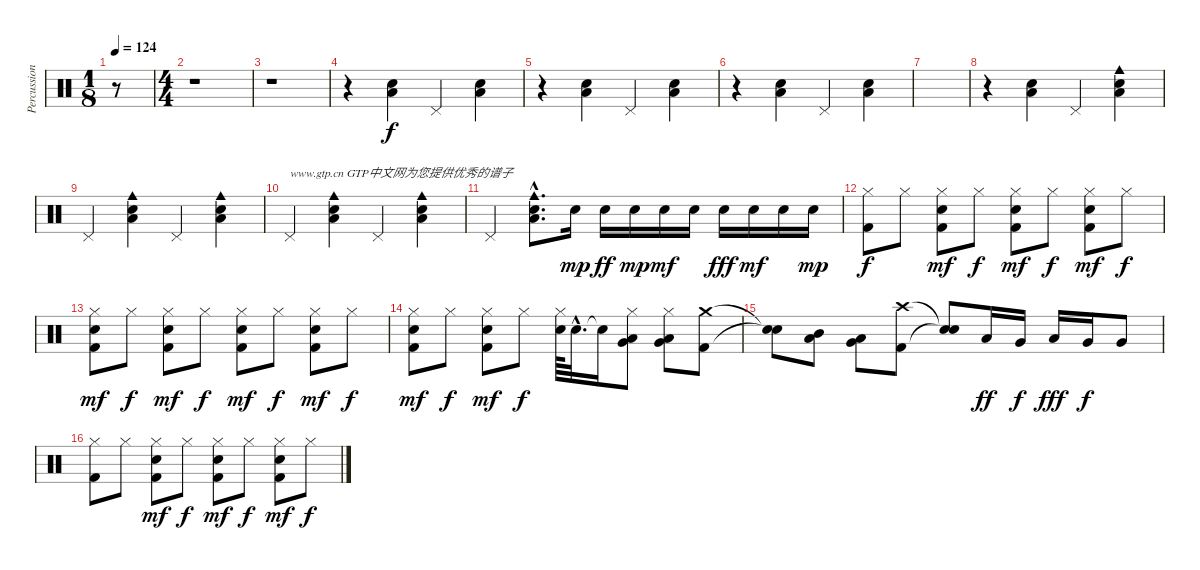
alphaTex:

\track ("Percussion" "Percussion") {instrument percussion}
\staff {score}
\articulation defaults
\ts (1 8)
\tempo 124
\clef neutral
\ks c
r.8{dy f} |
\ts (4 4)
r.1 |
r.1 |
r.4 ("Low Floor Tom (hit)" "Metronome (bell)").4 "Pedal Hi-Hat (hit)".4 ("Low Floor Tom (hit)" "Metronome (bell)").4 |
r.4 ("Low Floor Tom (hit)" "Metronome (bell)").4 "Pedal Hi-Hat (hit)".4 ("Low Floor Tom (hit)" "Metronome (bell)").4 |
r.4 ("Low Floor Tom (hit)" "Metronome (bell)").4 "Pedal Hi-Hat (hit)".4 ("Low Floor Tom (hit)" "Metronome (bell)").4 |
|
r.4 ("Low Floor Tom (hit)" "Metronome (bell)").4 "Pedal Hi-Hat (hit)".4 ("Cowbell medium (hit)" "Low Floor Tom (hit)" "Metronome (bell)").4 |
"Pedal Hi-Hat (hit)".4 ("Cowbell medium (hit)" "Low Floor Tom (hit)" "Metronome (bell)").4 "Pedal Hi-Hat (hit)".4 ("Cowbell medium (hit)" "Low Floor Tom (hit)" "Metronome (bell)").4 |
"Pedal Hi-Hat (hit)".4{txt "www.gtp.cn GTP中文网为您提供优秀的谱子"} ("Cowbell medium (hit)" "Low Floor Tom (hit)" "Metronome (bell)").4 "Pedal Hi-Hat (hit)".4 ("Cowbell medium (hit)" "Low Floor Tom (hit)" "Metronome (bell)").4 |
"Pedal Hi-Hat (hit)".4 ("Cowbell medium (hit)"{hac} "Low Floor Tom (hit)"{hac} "Metronome (bell)"{hac}).8{d} "Metronome (bell)".16{dy mp} "Metronome (bell)".16{dy ff} "Metronome (bell)".16{dy mp} "Metronome (bell)".16{dy mf} "Metronome (bell)".16 "Metronome (bell)".16{dy fff} "Metronome (bell)".16{dy mf} "Metronome (bell)".16 "Metronome (bell)".16{dy mp} |
("Hi-Hat (closed)" "Kick (hit) 2").8{dy f} "Hi-Hat (closed)".8 ("Hi-Hat (closed)" "Metronome (bell)" "Kick (hit) 2").8{dy mf} "Hi-Hat (closed)".8{dy f} ("Hi-Hat (closed)" "Metronome (bell)" "Kick (hit) 2").8{dy mf} "Hi-Hat (closed)".8{dy f} ("Hi-Hat (closed)" "Metronome (bell)" "Kick (hit) 2").8{dy mf} "Hi-Hat (closed)".8{dy f} |
("Hi-Hat (closed)" "Metronome (bell)" "Kick (hit) 2").8{dy mf} "Hi-Hat (closed)".8{dy f} ("Hi-Hat (closed)" "Metronome (bell)" "Kick (hit) 2").8{dy mf} "Hi-Hat (closed)".8{dy f} ("Hi-Hat (closed)" "Metronome (bell)" "Kick (hit) 2").8{dy mf} "Hi-Hat (closed)".8{dy f} ("Hi-Hat (closed)" "Metronome (bell)" "Kick (hit) 2").8{dy mf} "Hi-Hat (closed)".8{dy f} |
("Hi-Hat (closed)" "Metronome (bell)" "Kick (hit) 2").8{dy mf} "Hi-Hat (closed)".8{dy f} ("Hi-Hat (closed)" "Metronome (bell)" "Kick (hit) 2").8{dy mf} "Hi-Hat (closed)".8{dy f} ("Hi-Hat (closed)" "Metronome (bell)").64 "Metronome (bell)"{hac}.32{d} "Snare (hit)"{t}.16 ("Hi-Hat (closed)" "Low Tom (hit)" "Very Low Tom (hit)").8 ("Hi-Hat (closed)" "Very Low Tom (hit)" "Low Floor Tom (hit)").8 ("Crash medium (hit)" "Kick (hit) 2").8 |
("Snare (hit)"{t} "Snare (hit)"{t}).8 ("Mid Tom (hit)" "Low Tom (hit)").8 ("Low Tom (hit)" "Very Low Tom (hit)").8 ("Crash high (hit)" "Kick (hit) 2").8 ("Snare (hit)"{t} "Snare (hit)"{t}).8 "Low Tom (hit)".16{dy ff} "Very Low Tom (hit)".16{dy f} "Low Tom (hit)".16{dy fff} "Very Low Tom (hit)".16{dy f} "Very Low Tom (hit)".8 |
("Hi-Hat (closed)" "Kick (hit) 2").8 "Hi-Hat (closed)".8 ("Hi-Hat (closed)" "Metronome (bell)" "Kick (hit) 2").8{dy mf} "Hi-Hat (closed)".8{dy f} ("Hi-Hat (closed)" "Metronome (bell)" "Kick (hit) 2").8{dy mf} "Hi-Hat (closed)".8{dy f} ("Hi-Hat (closed)" "Metronome (bell)" "Kick (hit) 2").8{dy mf} "Hi-Hat (closed)".8{dy f}
